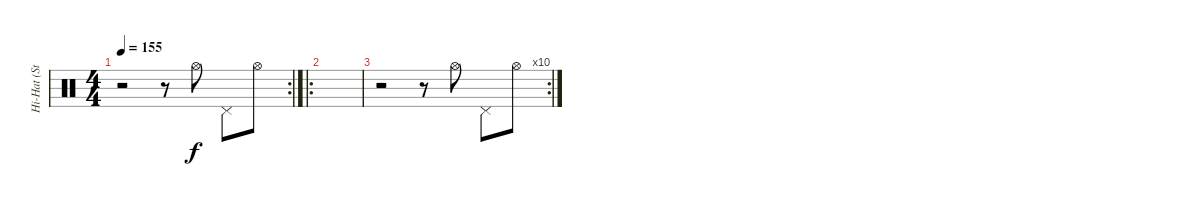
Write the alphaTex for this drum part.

\track ("Hi-Hat (Stephen Morris)" "Hi-Hat (St") {instrument percussion}
\staff {score}
\articulation defaults
\rc 2
\ts (4 4)
\tempo 155
\clef neutral
\ks c
r.2{dy f} r.8 "Hi-Hat (open)".8 "Pedal Hi-Hat (hit)".8 "Hi-Hat (open)".8 |
\ro
|
\rc 10
r.2 r.8 "Hi-Hat (open)".8 "Pedal Hi-Hat (hit)".8 "Hi-Hat (open)".8
